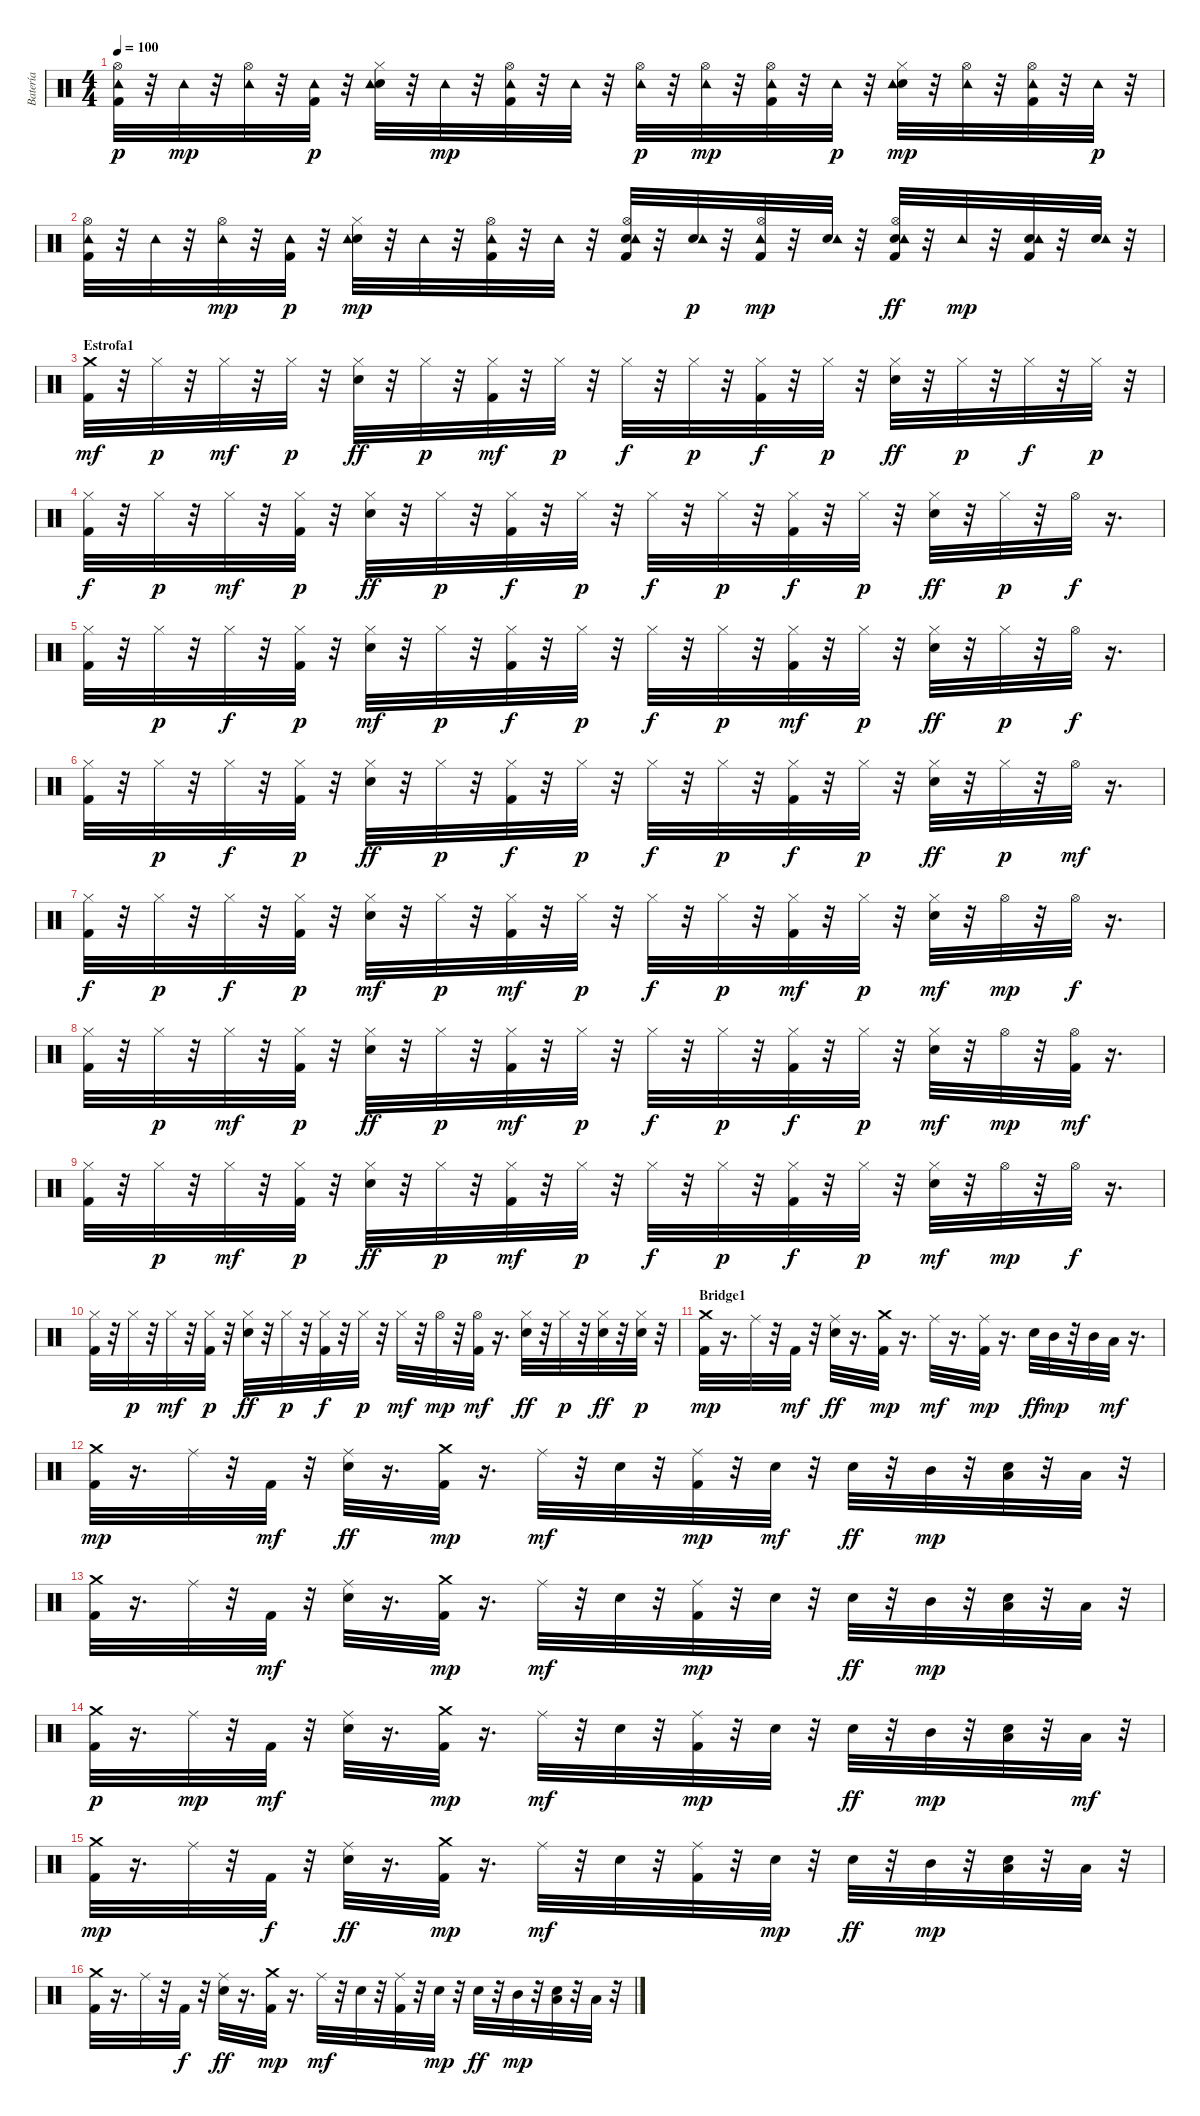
\track ("Batería" "Batería") {instrument percussion}
\staff {score}
\articulation defaults
\ts (4 4)
\tempo 100
\clef neutral
\ks c
("Kick (hit) 2" "Hi-Hat (open)" "Tambourine (hit)").32{dy p} r.32 "Tambourine (hit)".32{dy mp} r.32 ("Hi-Hat (open)" "Tambourine (hit)").32 r.32 ("Kick (hit) 2" "Tambourine (hit)").32{dy p} r.32 ("Electric Snare (hit)" "Hi-Hat (closed)" "Tambourine (hit)").32 r.32 "Tambourine (hit)".32{dy mp} r.32 ("Kick (hit) 2" "Hi-Hat (open)" "Tambourine (hit)").32 r.32 "Tambourine (hit)".32 r.32 ("Hi-Hat (open)" "Tambourine (hit)").32{dy p} r.32 ("Hi-Hat (open)" "Tambourine (hit)").32{dy mp} r.32 ("Kick (hit) 2" "Hi-Hat (open)" "Tambourine (hit)").32 r.32 "Tambourine (hit)".32{dy p} r.32 ("Electric Snare (hit)" "Hi-Hat (closed)" "Tambourine (hit)").32{dy mp} r.32 ("Hi-Hat (open)" "Tambourine (hit)").32 r.32 ("Kick (hit) 2" "Hi-Hat (open)" "Tambourine (hit)").32 r.32 "Tambourine (hit)".32{dy p} r.32 |
("Kick (hit) 2" "Hi-Hat (open)" "Tambourine (hit)").32 r.32 "Tambourine (hit)".32 r.32 ("Hi-Hat (open)" "Tambourine (hit)").32{dy mp} r.32 ("Kick (hit) 2" "Tambourine (hit)").32{dy p} r.32 ("Electric Snare (hit)" "Hi-Hat (closed)" "Tambourine (hit)").32{dy mp} r.32 "Tambourine (hit)".32 r.32 ("Kick (hit) 2" "Hi-Hat (open)" "Tambourine (hit)").32 r.32 "Tambourine (hit)".32 r.32 ("Kick (hit) 2" "Electric Snare (hit)" "Hi-Hat (open)" "Tambourine (hit)").32 r.32 ("Electric Snare (hit)" "Tambourine (hit)").32{dy p} r.32 ("Kick (hit) 2" "Hi-Hat (open)" "Tambourine (hit)").32{dy mp} r.32 ("Electric Snare (hit)" "Tambourine (hit)").32 r.32 ("Kick (hit) 2" "Electric Snare (hit)" "Hi-Hat (open)" "Tambourine (hit)").32{dy ff} r.32 "Tambourine (hit)".32{dy mp} r.32 ("Kick (hit) 2" "Electric Snare (hit)" "Tambourine (hit)").32 r.32 ("Electric Snare (hit)" "Tambourine (hit)").32 r.32 |
\section ("" "Estrofa1")
("Kick (hit) 2" "Crash medium (hit)").32{dy mf} r.32 "Hi-Hat (closed)".32{dy p} r.32 "Hi-Hat (closed)".32{dy mf} r.32 "Hi-Hat (closed)".32{dy p} r.32 ("Electric Snare (hit)" "Hi-Hat (closed)").32{dy ff} r.32 "Hi-Hat (closed)".32{dy p} r.32 ("Kick (hit) 2" "Hi-Hat (closed)").32{dy mf} r.32 "Hi-Hat (closed)".32{dy p} r.32 "Hi-Hat (closed)".32{dy f} r.32 "Hi-Hat (closed)".32{dy p} r.32 ("Kick (hit) 2" "Hi-Hat (closed)").32{dy f} r.32 "Hi-Hat (closed)".32{dy p} r.32 ("Electric Snare (hit)" "Hi-Hat (closed)").32{dy ff} r.32 "Hi-Hat (closed)".32{dy p} r.32 "Hi-Hat (closed)".32{dy f} r.32 "Hi-Hat (closed)".32{dy p} r.32 |
("Kick (hit) 2" "Hi-Hat (closed)").32{dy f} r.32 "Hi-Hat (closed)".32{dy p} r.32 "Hi-Hat (closed)".32{dy mf} r.32 ("Kick (hit) 2" "Hi-Hat (closed)").32{dy p} r.32 ("Electric Snare (hit)" "Hi-Hat (closed)").32{dy ff} r.32 "Hi-Hat (closed)".32{dy p} r.32 ("Kick (hit) 2" "Hi-Hat (closed)").32{dy f} r.32 "Hi-Hat (closed)".32{dy p} r.32 "Hi-Hat (closed)".32{dy f} r.32 "Hi-Hat (closed)".32{dy p} r.32 ("Kick (hit) 2" "Hi-Hat (closed)").32{dy f} r.32 "Hi-Hat (closed)".32{dy p} r.32 ("Electric Snare (hit)" "Hi-Hat (closed)").32{dy ff} r.32 "Hi-Hat (closed)".32{dy p} r.32 "Hi-Hat (open)".32{dy f} r.16{d} |
("Kick (hit) 2" "Hi-Hat (closed)").32 r.32 "Hi-Hat (closed)".32{dy p} r.32 "Hi-Hat (closed)".32{dy f} r.32 ("Kick (hit) 2" "Hi-Hat (closed)").32{dy p} r.32 ("Electric Snare (hit)" "Hi-Hat (closed)").32{dy mf} r.32 "Hi-Hat (closed)".32{dy p} r.32 ("Kick (hit) 2" "Hi-Hat (closed)").32{dy f} r.32 "Hi-Hat (closed)".32{dy p} r.32 "Hi-Hat (closed)".32{dy f} r.32 "Hi-Hat (closed)".32{dy p} r.32 ("Kick (hit) 2" "Hi-Hat (closed)").32{dy mf} r.32 "Hi-Hat (closed)".32{dy p} r.32 ("Electric Snare (hit)" "Hi-Hat (closed)").32{dy ff} r.32 "Hi-Hat (closed)".32{dy p} r.32 "Hi-Hat (open)".32{dy f} r.16{d} |
("Kick (hit) 2" "Hi-Hat (closed)").32 r.32 "Hi-Hat (closed)".32{dy p} r.32 "Hi-Hat (closed)".32{dy f} r.32 ("Kick (hit) 2" "Hi-Hat (closed)").32{dy p} r.32 ("Electric Snare (hit)" "Hi-Hat (closed)").32{dy ff} r.32 "Hi-Hat (closed)".32{dy p} r.32 ("Kick (hit) 2" "Hi-Hat (closed)").32{dy f} r.32 "Hi-Hat (closed)".32{dy p} r.32 "Hi-Hat (closed)".32{dy f} r.32 "Hi-Hat (closed)".32{dy p} r.32 ("Kick (hit) 2" "Hi-Hat (closed)").32{dy f} r.32 "Hi-Hat (closed)".32{dy p} r.32 ("Electric Snare (hit)" "Hi-Hat (closed)").32{dy ff} r.32 "Hi-Hat (closed)".32{dy p} r.32 "Hi-Hat (open)".32{dy mf} r.16{d} |
("Kick (hit) 2" "Hi-Hat (closed)").32{dy f} r.32 "Hi-Hat (closed)".32{dy p} r.32 "Hi-Hat (closed)".32{dy f} r.32 ("Kick (hit) 2" "Hi-Hat (closed)").32{dy p} r.32 ("Electric Snare (hit)" "Hi-Hat (closed)").32{dy mf} r.32 "Hi-Hat (closed)".32{dy p} r.32 ("Kick (hit) 2" "Hi-Hat (closed)").32{dy mf} r.32 "Hi-Hat (closed)".32{dy p} r.32 "Hi-Hat (closed)".32{dy f} r.32 "Hi-Hat (closed)".32{dy p} r.32 ("Kick (hit) 2" "Hi-Hat (closed)").32{dy mf} r.32 "Hi-Hat (closed)".32{dy p} r.32 ("Electric Snare (hit)" "Hi-Hat (closed)").32{dy mf} r.32 "Hi-Hat (open)".32{dy mp} r.32 "Hi-Hat (open)".32{dy f} r.16{d} |
("Kick (hit) 2" "Hi-Hat (closed)").32 r.32 "Hi-Hat (closed)".32{dy p} r.32 "Hi-Hat (closed)".32{dy mf} r.32 ("Kick (hit) 2" "Hi-Hat (closed)").32{dy p} r.32 ("Electric Snare (hit)" "Hi-Hat (closed)").32{dy ff} r.32 "Hi-Hat (closed)".32{dy p} r.32 ("Kick (hit) 2" "Hi-Hat (closed)").32{dy mf} r.32 "Hi-Hat (closed)".32{dy p} r.32 "Hi-Hat (closed)".32{dy f} r.32 "Hi-Hat (closed)".32{dy p} r.32 ("Kick (hit) 2" "Hi-Hat (closed)").32{dy f} r.32 "Hi-Hat (closed)".32{dy p} r.32 ("Electric Snare (hit)" "Hi-Hat (closed)").32{dy mf} r.32 "Hi-Hat (open)".32{dy mp} r.32 ("Kick (hit) 2" "Hi-Hat (open)").32{dy mf} r.16{d} |
("Kick (hit) 2" "Hi-Hat (closed)").32 r.32 "Hi-Hat (closed)".32{dy p} r.32 "Hi-Hat (closed)".32{dy mf} r.32 ("Kick (hit) 2" "Hi-Hat (closed)").32{dy p} r.32 ("Electric Snare (hit)" "Hi-Hat (closed)").32{dy ff} r.32 "Hi-Hat (closed)".32{dy p} r.32 ("Kick (hit) 2" "Hi-Hat (closed)").32{dy mf} r.32 "Hi-Hat (closed)".32{dy p} r.32 "Hi-Hat (closed)".32{dy f} r.32 "Hi-Hat (closed)".32{dy p} r.32 ("Kick (hit) 2" "Hi-Hat (closed)").32{dy f} r.32 "Hi-Hat (closed)".32{dy p} r.32 ("Electric Snare (hit)" "Hi-Hat (closed)").32{dy mf} r.32 "Hi-Hat (open)".32{dy mp} r.32 "Hi-Hat (open)".32{dy f} r.16{d} |
("Kick (hit) 2" "Hi-Hat (closed)").32 r.32 "Hi-Hat (closed)".32{dy p} r.32 "Hi-Hat (closed)".32{dy mf} r.32 ("Kick (hit) 2" "Hi-Hat (closed)").32{dy p} r.32 ("Electric Snare (hit)" "Hi-Hat (closed)").32{dy ff} r.32 "Hi-Hat (closed)".32{dy p} r.32 ("Kick (hit) 2" "Hi-Hat (closed)").32{dy f} r.32 "Hi-Hat (closed)".32{dy p} r.32 "Hi-Hat (closed)".32{dy mf} r.32 "Hi-Hat (open)".32{dy mp} r.32 ("Kick (hit) 2" "Hi-Hat (open)").32{dy mf} r.16{d} ("Electric Snare (hit)" "Hi-Hat (closed)").32{dy ff} r.32 "Hi-Hat (closed)".32{dy p} r.32 ("Electric Snare (hit)" "Hi-Hat (closed)").32{dy ff} r.32 ("Electric Snare (hit)" "Hi-Hat (closed)").32{dy p} r.32 |
\section ("" "Bridge1")
("Kick (hit) 2" "Crash medium (hit)").32{dy mp} r.16{d} "Ride (middle)".32 r.32 "Kick (hit) 2".32{dy mf} r.32 ("Electric Snare (hit)" "Ride (middle)").32{dy ff} r.16{d} ("Kick (hit) 2" "Crash medium (hit)").32{dy mp} r.16{d} "Ride (middle)".32{dy mf} r.16{d} ("Kick (hit) 2" "Ride (middle)").32{dy mp} r.16{d} "Electric Snare (hit)".32{dy ff} "Mid Tom (hit)".32{dy mp} r.32 "Mid Tom (hit)".32 "Low Tom (hit)".32{dy mf} r.16{d} |
("Kick (hit) 2" "Crash medium (hit)").32{dy mp} r.16{d} "Ride (middle)".32 r.32 "Kick (hit) 2".32{dy mf} r.32 ("Electric Snare (hit)" "Ride (middle)").32{dy ff} r.16{d} ("Kick (hit) 2" "Crash medium (hit)").32{dy mp} r.16{d} "Ride (middle)".32{dy mf} r.32 "Electric Snare (hit)".32 r.32 ("Kick (hit) 2" "Ride (middle)").32{dy mp} r.32 "Electric Snare (hit)".32{dy mf} r.32 "Electric Snare (hit)".32{dy ff} r.32 "Mid Tom (hit)".32{dy mp} r.32 ("Electric Snare (hit)" "Low Tom (hit)").32 r.32 "Low Tom (hit)".32 r.32 |
("Kick (hit) 2" "Crash medium (hit)").32 r.16{d} "Ride (middle)".32 r.32 "Kick (hit) 2".32{dy mf} r.32 ("Electric Snare (hit)" "Ride (middle)").32 r.16{d} ("Kick (hit) 2" "Crash medium (hit)").32{dy mp} r.16{d} "Ride (middle)".32{dy mf} r.32 "Electric Snare (hit)".32 r.32 ("Kick (hit) 2" "Ride (middle)").32{dy mp} r.32 "Electric Snare (hit)".32 r.32 "Electric Snare (hit)".32{dy ff} r.32 "Mid Tom (hit)".32{dy mp} r.32 ("Electric Snare (hit)" "Low Tom (hit)").32 r.32 "Low Tom (hit)".32 r.32 |
("Kick (hit) 2" "Crash medium (hit)").32{dy p} r.16{d} "Ride (middle)".32{dy mp} r.32 "Kick (hit) 2".32{dy mf} r.32 ("Electric Snare (hit)" "Ride (middle)").32 r.16{d} ("Kick (hit) 2" "Crash medium (hit)").32{dy mp} r.16{d} "Ride (middle)".32{dy mf} r.32 "Electric Snare (hit)".32 r.32 ("Kick (hit) 2" "Ride (middle)").32{dy mp} r.32 "Electric Snare (hit)".32 r.32 "Electric Snare (hit)".32{dy ff} r.32 "Mid Tom (hit)".32{dy mp} r.32 ("Electric Snare (hit)" "Low Tom (hit)").32 r.32 "Low Tom (hit)".32{dy mf} r.32 |
("Kick (hit) 2" "Crash medium (hit)").32{dy mp} r.16{d} "Ride (middle)".32 r.32 "Kick (hit) 2".32{dy f} r.32 ("Electric Snare (hit)" "Ride (middle)").32{dy ff} r.16{d} ("Kick (hit) 2" "Crash medium (hit)").32{dy mp} r.16{d} "Ride (middle)".32{dy mf} r.32 "Electric Snare (hit)".32 r.32 ("Kick (hit) 2" "Ride (middle)").32 r.32 "Electric Snare (hit)".32{dy mp} r.32 "Electric Snare (hit)".32{dy ff} r.32 "Mid Tom (hit)".32{dy mp} r.32 ("Electric Snare (hit)" "Low Tom (hit)").32 r.32 "Low Tom (hit)".32 r.32 |
("Kick (hit) 2" "Crash medium (hit)").32 r.16{d} "Ride (middle)".32 r.32 "Kick (hit) 2".32{dy f} r.32 ("Electric Snare (hit)" "Ride (middle)").32{dy ff} r.16{d} ("Kick (hit) 2" "Crash medium (hit)").32{dy mp} r.16{d} "Ride (middle)".32{dy mf} r.32 "Electric Snare (hit)".32 r.32 ("Kick (hit) 2" "Ride (middle)").32 r.32 "Electric Snare (hit)".32{dy mp} r.32 "Electric Snare (hit)".32{dy ff} r.32 "Mid Tom (hit)".32{dy mp} r.32 ("Electric Snare (hit)" "Low Tom (hit)").32 r.32 "Low Tom (hit)".32 r.32
